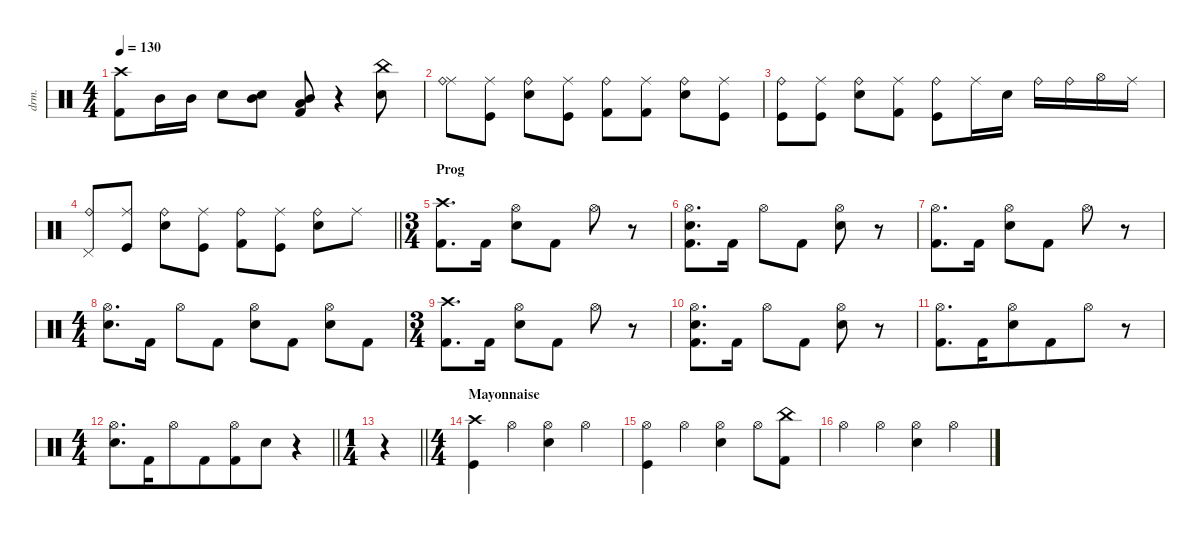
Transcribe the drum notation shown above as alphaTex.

\defaultSystemsLayout 4
\hideDynamics
\bracketExtendMode nobrackets
\otherSystemsTrackNameOrientation horizontal
\track ("Manouche" "drm.") {instrument percussion}
\staff {score}
\articulation defaults
\voice
\ts (4 4)
\tempo 130
\clef neutral
\ks c
("Crash high (hit)" "Kick (hit) 2").8{dy f beam Down} "Mid Tom (hit)".16{beam Down} "Mid Tom (hit)".16{beam Down} "Snare (hit) 2".8{dy ff beam Down} ("Mid Tom (hit)" "Snare (hit) 2").8{dy mf beam Down} ("Kick (hit) 2" "Mid Tom (hit)" "Low Floor Tom (hit)").8{dy ff beam Up} r.4{beam Up} ("China (hit)" "Snare (hit) 2").8{beam Down} |
("Ride (middle)" "Ride (bell)").8{dy f beam Down} ("Ride (middle)" "Kick (hit)").8{dy mp beam Down} ("Snare (hit) 2" "Ride (bell)").8{dy f beam Down} ("Kick (hit)" "Ride (middle)").8{beam Down} ("Ride (bell)" "Kick (hit) 2").8{beam Down} ("Ride (middle)" "Kick (hit) 2").8{dy mp beam Down} ("Ride (bell)" "Snare (hit) 2").8{dy f beam Down} ("Ride (middle)" "Kick (hit)").8{dy mp beam Down} |
("Kick (hit)" "Ride (bell)").8{dy f beam Down} ("Kick (hit)" "Ride (middle)").8{beam Down} ("Ride (bell)" "Snare (hit) 2").8{beam Down} ("Ride (middle)" "Kick (hit) 2").8{dy mp beam Down} ("Ride (bell)" "Kick (hit)").8{dy f beam Down} "Ride (middle)".16{dy mp beam Down} "Snare (hit) 2".16{dy f beam Down} "Ride (bell)".16{beam Down} "Ride (bell)".16{beam Down} "Hi-Hat (open)".16{beam Down} "Ride (middle)".16{beam Down} |
\barLineRight lightlight
("Ride (bell)" "Pedal Hi-Hat (hit)").8{beam Up} ("Kick (hit)" "Ride (middle)").8{beam Up} ("Snare (hit) 2" "Ride (bell)").8{beam Down} ("Ride (middle)" "Kick (hit)").8{dy mp beam Down} ("Ride (bell)" "Kick (hit) 2").8{dy f beam Down} ("Ride (middle)" "Kick (hit)").8{dy mp beam Down} ("Snare (hit) 2" "Ride (bell)").8{dy f beam Down} "Ride (middle)".8{dy mp beam Down} |
\ts (3 4)
\beaming (8 2 2 2)
\section ("" "Prog")
("Crash high (hit)" "Kick (hit) 2").8{d dy f beam Down} "Kick (hit) 2".16{beam Down} ("Hi-Hat (open)" "Snare (hit) 2").8{beam Down} "Kick (hit) 2".8{beam Down} "Hi-Hat (open)".8{beam Down} r.8{beam Down} |
("Hi-Hat (open)" "Snare (hit) 2" "Kick (hit) 2").8{d beam Down} "Kick (hit) 2".16{beam Down} "Hi-Hat (open)".8{beam Down} "Kick (hit) 2".8{beam Down} ("Hi-Hat (open)" "Snare (hit) 2").8{beam Down} r.8{beam Down} |
("Hi-Hat (open)" "Kick (hit) 2").8{d beam Down} "Kick (hit) 2".16{beam Down} ("Hi-Hat (open)" "Snare (hit) 2").8{beam Down} "Kick (hit) 2".8{beam Down} "Hi-Hat (open)".8{beam Down} r.8{beam Down} |
\ts (4 4)
\beaming (8 2 2 2 2)
("Hi-Hat (open)" "Snare (hit) 2").8{d beam Down} "Kick (hit) 2".16{beam Down} "Hi-Hat (open)".8{beam Down} "Kick (hit) 2".8{beam Down} ("Hi-Hat (open)" "Snare (hit) 2").8{beam Down} "Kick (hit) 2".8{beam Down} ("Hi-Hat (open)" "Snare (hit) 2").8{beam Down} "Kick (hit) 2".8{beam Down} |
\ts (3 4)
\beaming (8 2 2 2)
("Crash high (hit)" "Kick (hit) 2").8{d beam Down} "Kick (hit) 2".16{beam Down} ("Hi-Hat (open)" "Snare (hit) 2").8{beam Down} "Kick (hit) 2".8{beam Down} "Hi-Hat (open)".8{beam Down} r.8{beam Down} |
("Hi-Hat (open)" "Snare (hit) 2" "Kick (hit) 2").8{d beam Down} "Kick (hit) 2".16{beam Down} "Hi-Hat (open)".8{beam Down} "Kick (hit) 2".8{beam Down} ("Hi-Hat (open)" "Snare (hit) 2").8{beam Down} r.8{beam Down} |
\beaming (8 6 4)
("Hi-Hat (open)" "Kick (hit) 2").8{d beam Down} "Kick (hit) 2".16{beam Down} ("Hi-Hat (open)" "Snare (hit) 2").8{beam Down} "Kick (hit) 2".8{beam Down} "Hi-Hat (open)".8{beam Down} r.8{beam Down} |
\ts (4 4)
\beaming (8 6 4)
\barLineRight lightlight
("Hi-Hat (open)" "Snare (hit) 2").8{d beam Down} "Kick (hit) 2".16{beam Down} "Hi-Hat (open)".8{beam Down} "Kick (hit) 2".8{beam Down} ("Hi-Hat (open)" "Kick (hit) 2").8{beam Down} "Snare (hit) 2".8{beam Down} r.4{beam Down} |
\ts (1 4)
\beaming (8 2)
\barLineRight lightlight
r.4{beam Up} |
\ts (4 4)
\beaming (8 2 2 2 2)
\section ("" "Mayonnaise")
("Crash high (hit)" "Kick (hit)").4{beam Down} "Hi-Hat (open)".4{beam Down} ("Hi-Hat (open)" "Snare (hit) 2").4{beam Down} "Hi-Hat (open)".4{beam Down} |
("Hi-Hat (open)" "Kick (hit)").4{beam Down} "Hi-Hat (open)".4{beam Down} ("Hi-Hat (open)" "Snare (hit) 2").4{beam Down} "Hi-Hat (open)".8{beam Down} ("China (hit)" "Kick (hit) 2").8{beam Down} |
"Hi-Hat (open)".4{beam Down} "Hi-Hat (open)".4{beam Down} ("Hi-Hat (open)" "Snare (hit) 2").4{beam Down} "Hi-Hat (open)".4{beam Down}
\voice
\clef neutral
\ottava regular
\simile none
\ks c
|
|
|
\barLineRight lightlight
|
|
|
|
|
|
|
|
\barLineRight lightlight
|
\barLineRight lightlight
r.4{dy mf beam Down} |
|
|
